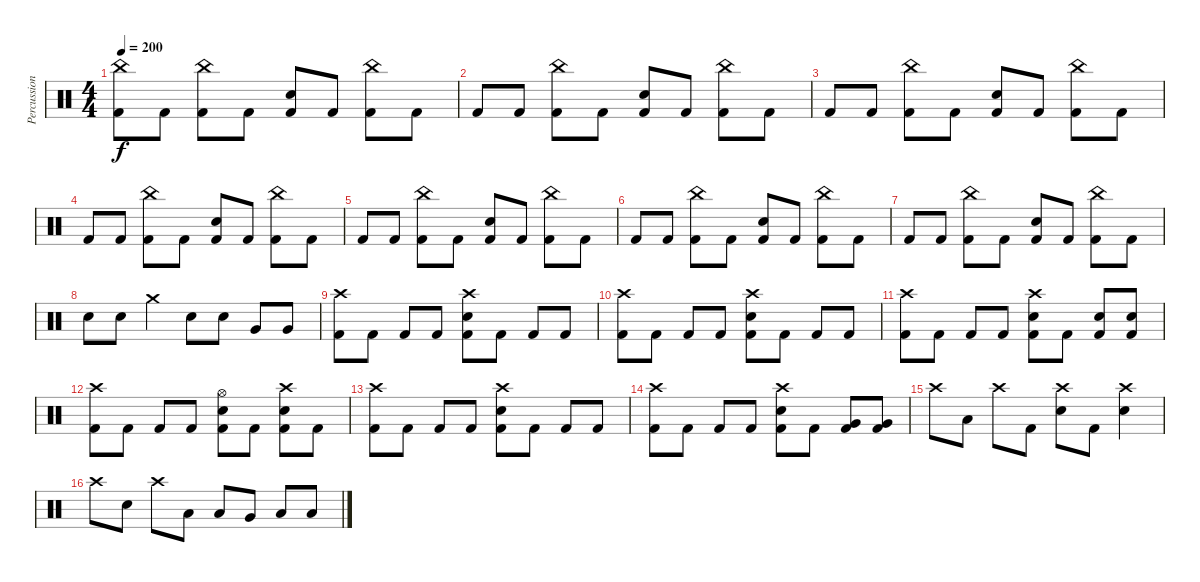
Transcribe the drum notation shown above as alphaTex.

\track ("Percussion" "Percussion") {instrument percussion}
\staff {score}
\articulation defaults
\ts (4 4)
\tempo 200
\clef neutral
\ks c
("China (hit)" "Kick (hit) 2").8{dy f} "Kick (hit) 2".8 ("China (hit)" "Kick (hit) 2").8 "Kick (hit) 2".8 ("Electric Snare (hit)" "Kick (hit) 2").8 "Kick (hit) 2".8 ("China (hit)" "Kick (hit) 2").8 "Kick (hit) 2".8 |
"Kick (hit) 2".8 "Kick (hit) 2".8 ("China (hit)" "Kick (hit) 2").8 "Kick (hit) 2".8 ("Electric Snare (hit)" "Kick (hit) 2").8 "Kick (hit) 2".8 ("China (hit)" "Kick (hit) 2").8 "Kick (hit) 2".8 |
"Kick (hit) 2".8 "Kick (hit) 2".8 ("China (hit)" "Kick (hit) 2").8 "Kick (hit) 2".8 ("Electric Snare (hit)" "Kick (hit) 2").8 "Kick (hit) 2".8 ("China (hit)" "Kick (hit) 2").8 "Kick (hit) 2".8 |
"Kick (hit) 2".8 "Kick (hit) 2".8 ("China (hit)" "Kick (hit) 2").8 "Kick (hit) 2".8 ("Electric Snare (hit)" "Kick (hit) 2").8 "Kick (hit) 2".8 ("China (hit)" "Kick (hit) 2").8 "Kick (hit) 2".8 |
"Kick (hit) 2".8 "Kick (hit) 2".8 ("China (hit)" "Kick (hit) 2").8 "Kick (hit) 2".8 ("Electric Snare (hit)" "Kick (hit) 2").8 "Kick (hit) 2".8 ("China (hit)" "Kick (hit) 2").8 "Kick (hit) 2".8 |
"Kick (hit) 2".8 "Kick (hit) 2".8 ("China (hit)" "Kick (hit) 2").8 "Kick (hit) 2".8 ("Electric Snare (hit)" "Kick (hit) 2").8 "Kick (hit) 2".8 ("China (hit)" "Kick (hit) 2").8 "Kick (hit) 2".8 |
"Kick (hit) 2".8 "Kick (hit) 2".8 ("China (hit)" "Kick (hit) 2").8 "Kick (hit) 2".8 ("Electric Snare (hit)" "Kick (hit) 2").8 "Kick (hit) 2".8 ("China (hit)" "Kick (hit) 2").8 "Kick (hit) 2".8 |
"Electric Snare (hit)".8 "Electric Snare (hit)".8 "Crash medium (hit)".4 "Electric Snare (hit)".8 "Electric Snare (hit)".8 "Very Low Tom (hit)".8 "Very Low Tom (hit)".8 |
("Crash high (hit)" "Kick (hit) 2").8 "Kick (hit) 2".8 "Kick (hit) 2".8 "Kick (hit) 2".8 ("Crash high (hit)" "Electric Snare (hit)" "Kick (hit) 2").8 "Kick (hit) 2".8 "Kick (hit) 2".8 "Kick (hit) 2".8 |
("Crash high (hit)" "Kick (hit) 2").8 "Kick (hit) 2".8 "Kick (hit) 2".8 "Kick (hit) 2".8 ("Crash high (hit)" "Electric Snare (hit)" "Kick (hit) 2").8 "Kick (hit) 2".8 "Kick (hit) 2".8 "Kick (hit) 2".8 |
("Crash high (hit)" "Kick (hit) 2").8 "Kick (hit) 2".8 "Kick (hit) 2".8 "Kick (hit) 2".8 ("Crash high (hit)" "Electric Snare (hit)" "Kick (hit) 2").8 "Kick (hit) 2".8 ("Electric Snare (hit)" "Kick (hit) 2").8 ("Electric Snare (hit)" "Kick (hit) 2").8 |
("Crash high (hit)" "Kick (hit) 2").8{volume 9} "Kick (hit) 2".8 "Kick (hit) 2".8 "Kick (hit) 2".8 ("Hi-Hat (open)" "Electric Snare (hit)" "Kick (hit) 2").8 "Kick (hit) 2".8 ("Crash high (hit)" "Electric Snare (hit)" "Kick (hit) 2").8 "Kick (hit) 2".8 |
("Crash high (hit)" "Kick (hit) 2").8 "Kick (hit) 2".8 "Kick (hit) 2".8 "Kick (hit) 2".8 ("Crash high (hit)" "Electric Snare (hit)" "Kick (hit) 2").8 "Kick (hit) 2".8 "Kick (hit) 2".8 "Kick (hit) 2".8 |
("Crash high (hit)" "Kick (hit) 2").8 "Kick (hit) 2".8 "Kick (hit) 2".8 "Kick (hit) 2".8 ("Crash high (hit)" "Electric Snare (hit)" "Kick (hit) 2").8 "Kick (hit) 2".8 ("Very Low Tom (hit)" "Kick (hit) 2").8 ("Very Low Tom (hit)" "Kick (hit) 2").8 |
"Crash high (hit)".8 "Low Tom (hit)".8 "Crash high (hit)".8 "Kick (hit) 2".8 ("Crash high (hit)" "Electric Snare (hit)").8 "Kick (hit) 2".8 ("Crash high (hit)" "Electric Snare (hit)").4 |
"Crash high (hit)".8 "Electric Snare (hit)".8 "Crash high (hit)".8 "Low Tom (hit)".8 "Low Tom (hit)".8 "Very Low Tom (hit)".8 "Low Floor Tom (hit)".8 "Low Floor Tom (hit)".8
